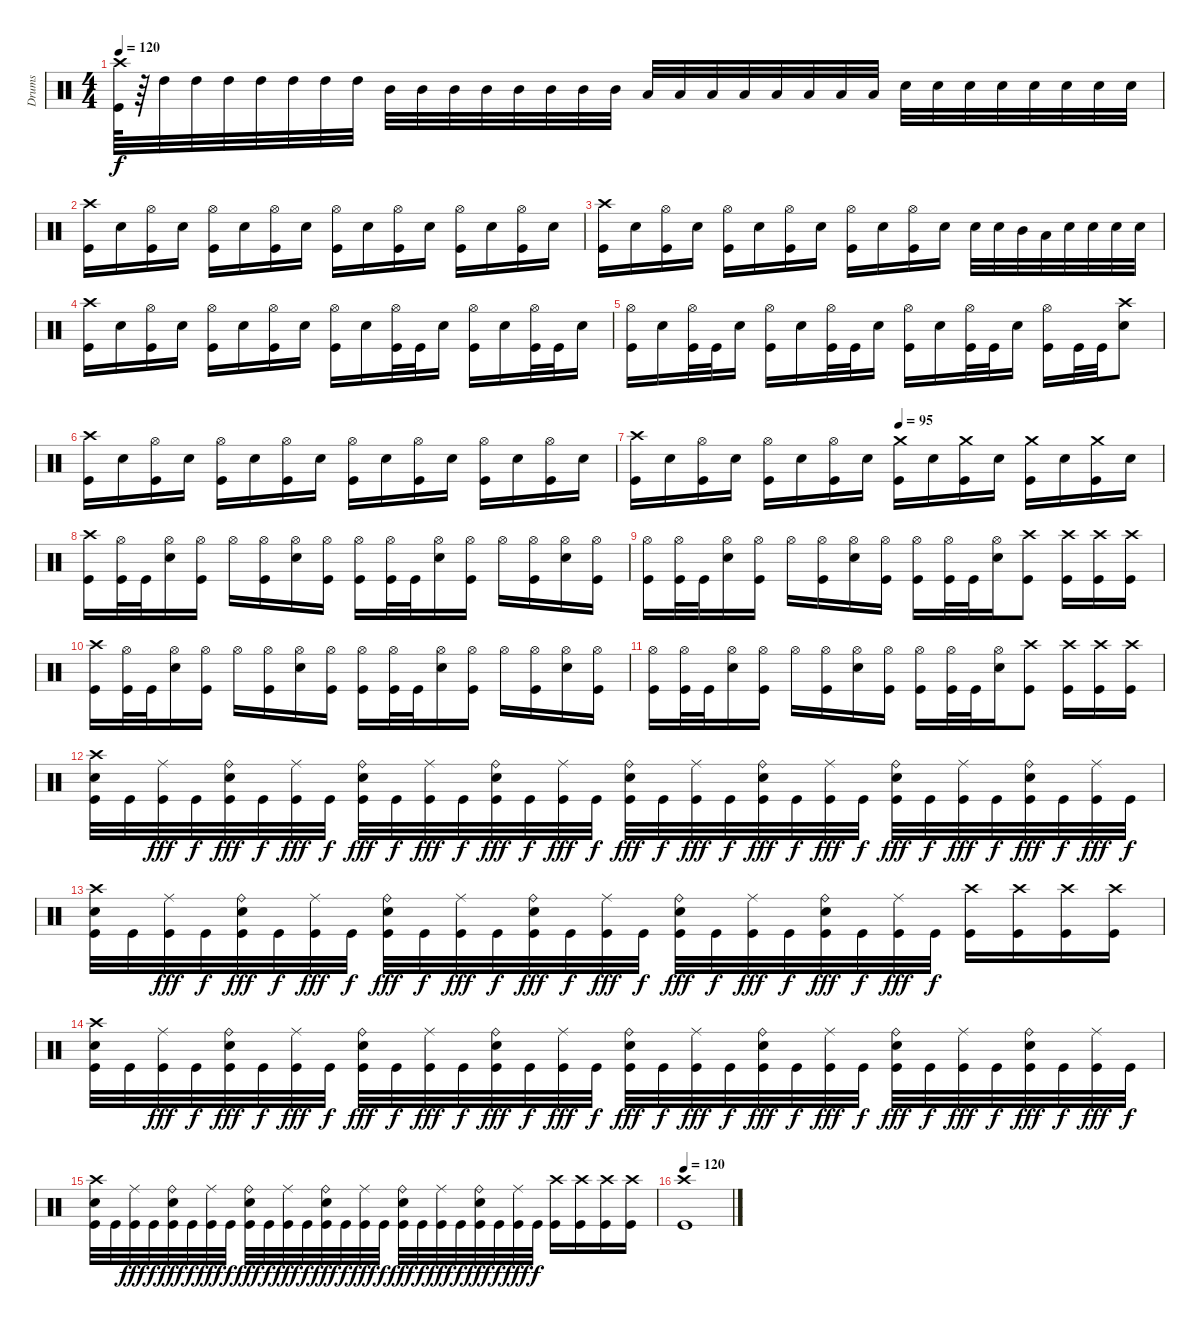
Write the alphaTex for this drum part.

\track ("Drums" "Drums") {instrument percussion}
\staff {score}
\articulation defaults
\ts (4 4)
\tempo 120
\clef neutral
\ks c
("Crash high (hit)" "Kick (hit)").64{dy f} r.64{balance 16} "High Tom (hit)".32{balance 0} "High Tom (hit)".32 "High Tom (hit)".32 "High Tom (hit)".32 "High Tom (hit)".32 "High Tom (hit)".32 "High Tom (hit)".32 "Mid Tom (hit)".32 "Mid Tom (hit)".32 "Mid Tom (hit)".32 "Mid Tom (hit)".32 "Mid Tom (hit)".32 "Mid Tom (hit)".32 "Mid Tom (hit)".32 "Mid Tom (hit)".32 "Low Tom (hit)".32 "Low Tom (hit)".32 "Low Tom (hit)".32 "Low Tom (hit)".32 "Low Tom (hit)".32 "Low Tom (hit)".32 "Low Tom (hit)".32 "Low Tom (hit)".32 "Electric Snare (hit)".32{balance 8} "Electric Snare (hit)".32{balance 8} "Electric Snare (hit)".32 "Electric Snare (hit)".32 "Electric Snare (hit)".32 "Electric Snare (hit)".32 "Electric Snare (hit)".32 "Electric Snare (hit)".32 |
("Crash high (hit)" "Kick (hit)").16 "Electric Snare (hit)".16 ("Hi-Hat (open)" "Kick (hit)").16 "Electric Snare (hit)".16 ("Hi-Hat (open)" "Kick (hit)").16 "Electric Snare (hit)".16 ("Hi-Hat (open)" "Kick (hit)").16 "Electric Snare (hit)".16 ("Hi-Hat (open)" "Kick (hit)").16 "Electric Snare (hit)".16 ("Hi-Hat (open)" "Kick (hit)").16 "Electric Snare (hit)".16 ("Hi-Hat (open)" "Kick (hit)").16 "Electric Snare (hit)".16 ("Hi-Hat (open)" "Kick (hit)").16 "Electric Snare (hit)".16 |
("Crash high (hit)" "Kick (hit)").16 "Electric Snare (hit)".16 ("Hi-Hat (open)" "Kick (hit)").16 "Electric Snare (hit)".16 ("Hi-Hat (open)" "Kick (hit)").16 "Electric Snare (hit)".16 ("Hi-Hat (open)" "Kick (hit)").16 "Electric Snare (hit)".16 ("Hi-Hat (open)" "Kick (hit)").16 "Electric Snare (hit)".16 ("Hi-Hat (open)" "Kick (hit)").16 "Electric Snare (hit)".16 "Electric Snare (hit)".32 "Electric Snare (hit)".32 "Mid Tom (hit)".32 "Low Tom (hit)".32 "Electric Snare (hit)".32 "Electric Snare (hit)".32 "Electric Snare (hit)".32 "Electric Snare (hit)".32 |
("Crash high (hit)" "Kick (hit)").16 "Electric Snare (hit)".16 ("Hi-Hat (open)" "Kick (hit)").16 "Electric Snare (hit)".16 ("Hi-Hat (open)" "Kick (hit)").16 "Electric Snare (hit)".16 ("Hi-Hat (open)" "Kick (hit)").16 "Electric Snare (hit)".16 ("Hi-Hat (open)" "Kick (hit)").16 "Electric Snare (hit)".16 ("Hi-Hat (open)" "Kick (hit)").32 "Kick (hit)".32 "Electric Snare (hit)".16 ("Hi-Hat (open)" "Kick (hit)").16 "Electric Snare (hit)".16 ("Hi-Hat (open)" "Kick (hit)").32 "Kick (hit)".32 "Electric Snare (hit)".16 |
("Hi-Hat (open)" "Kick (hit)").16 "Electric Snare (hit)".16 ("Hi-Hat (open)" "Kick (hit)").32 "Kick (hit)".32 "Electric Snare (hit)".16 ("Hi-Hat (open)" "Kick (hit)").16 "Electric Snare (hit)".16 ("Hi-Hat (open)" "Kick (hit)").32 "Kick (hit)".32 "Electric Snare (hit)".16 ("Hi-Hat (open)" "Kick (hit)").16 "Electric Snare (hit)".16 ("Hi-Hat (open)" "Kick (hit)").32 "Kick (hit)".32 "Electric Snare (hit)".16 ("Hi-Hat (open)" "Kick (hit)").16 "Kick (hit)".32 "Kick (hit)".32 ("Crash high (hit)" "Electric Snare (hit)").8 |
("Crash high (hit)" "Kick (hit)").16 "Electric Snare (hit)".16 ("Hi-Hat (open)" "Kick (hit)").16 "Electric Snare (hit)".16 ("Hi-Hat (open)" "Kick (hit)").16 "Electric Snare (hit)".16 ("Hi-Hat (open)" "Kick (hit)").16 "Electric Snare (hit)".16 ("Hi-Hat (open)" "Kick (hit)").16 "Electric Snare (hit)".16 ("Hi-Hat (open)" "Kick (hit)").16 "Electric Snare (hit)".16 ("Hi-Hat (open)" "Kick (hit)").16 "Electric Snare (hit)".16 ("Hi-Hat (open)" "Kick (hit)").16 "Electric Snare (hit)".16 |
\tempo (95 0.5)
("Crash high (hit)" "Kick (hit)").16 "Electric Snare (hit)".16 ("Hi-Hat (open)" "Kick (hit)").16 "Electric Snare (hit)".16 ("Hi-Hat (open)" "Kick (hit)").16 "Electric Snare (hit)".16 ("Hi-Hat (open)" "Kick (hit)").16 "Electric Snare (hit)".16 ("Crash medium (hit)" "Kick (hit)").16 "Electric Snare (hit)".16 ("Crash medium (hit)" "Kick (hit)").16 "Electric Snare (hit)".16 ("Crash medium (hit)" "Kick (hit)").16 "Electric Snare (hit)".16 ("Crash medium (hit)" "Kick (hit)").16 "Electric Snare (hit)".16 |
("Crash high (hit)" "Kick (hit)").16 ("Hi-Hat (open)" "Kick (hit)").32 "Kick (hit)".32 ("Hi-Hat (open)" "Electric Snare (hit)").16 ("Hi-Hat (open)" "Kick (hit)").16 "Hi-Hat (open)".16 ("Hi-Hat (open)" "Kick (hit)").16 ("Hi-Hat (open)" "Electric Snare (hit)").16 ("Hi-Hat (open)" "Kick (hit)").16 ("Hi-Hat (open)" "Kick (hit)").16 ("Hi-Hat (open)" "Kick (hit)").32 "Kick (hit)".32 ("Hi-Hat (open)" "Electric Snare (hit)").16 ("Hi-Hat (open)" "Kick (hit)").16 "Hi-Hat (open)".16 ("Hi-Hat (open)" "Kick (hit)").16 ("Hi-Hat (open)" "Electric Snare (hit)").16 ("Hi-Hat (open)" "Kick (hit)").16 |
("Hi-Hat (open)" "Kick (hit)").16 ("Hi-Hat (open)" "Kick (hit)").32 "Kick (hit)".32 ("Hi-Hat (open)" "Electric Snare (hit)").16 ("Hi-Hat (open)" "Kick (hit)").16 "Hi-Hat (open)".16 ("Hi-Hat (open)" "Kick (hit)").16 ("Hi-Hat (open)" "Electric Snare (hit)").16 ("Hi-Hat (open)" "Kick (hit)").16 ("Hi-Hat (open)" "Kick (hit)").16 ("Hi-Hat (open)" "Kick (hit)").32 "Kick (hit)".32 ("Hi-Hat (open)" "Electric Snare (hit)").16 ("Crash high (hit)" "Kick (hit)").8 ("Crash high (hit)" "Kick (hit)").16 ("Crash high (hit)" "Kick (hit)").16 ("Crash high (hit)" "Kick (hit)").16 |
("Crash high (hit)" "Kick (hit)").16 ("Hi-Hat (open)" "Kick (hit)").32 "Kick (hit)".32 ("Hi-Hat (open)" "Electric Snare (hit)").16 ("Hi-Hat (open)" "Kick (hit)").16 "Hi-Hat (open)".16 ("Hi-Hat (open)" "Kick (hit)").16 ("Hi-Hat (open)" "Electric Snare (hit)").16 ("Hi-Hat (open)" "Kick (hit)").16 ("Hi-Hat (open)" "Kick (hit)").16 ("Hi-Hat (open)" "Kick (hit)").32 "Kick (hit)".32 ("Hi-Hat (open)" "Electric Snare (hit)").16 ("Hi-Hat (open)" "Kick (hit)").16 "Hi-Hat (open)".16 ("Hi-Hat (open)" "Kick (hit)").16 ("Hi-Hat (open)" "Electric Snare (hit)").16 ("Hi-Hat (open)" "Kick (hit)").16 |
("Hi-Hat (open)" "Kick (hit)").16 ("Hi-Hat (open)" "Kick (hit)").32 "Kick (hit)".32 ("Hi-Hat (open)" "Electric Snare (hit)").16 ("Hi-Hat (open)" "Kick (hit)").16 "Hi-Hat (open)".16 ("Hi-Hat (open)" "Kick (hit)").16 ("Hi-Hat (open)" "Electric Snare (hit)").16 ("Hi-Hat (open)" "Kick (hit)").16 ("Hi-Hat (open)" "Kick (hit)").16 ("Hi-Hat (open)" "Kick (hit)").32 "Kick (hit)".32 ("Hi-Hat (open)" "Electric Snare (hit)").16 ("Crash high (hit)" "Kick (hit)").8 ("Crash high (hit)" "Kick (hit)").16 ("Crash high (hit)" "Kick (hit)").16 ("Crash high (hit)" "Kick (hit)").16 |
("Crash high (hit)" "Electric Snare (hit)" "Kick (hit)").32 "Kick (hit)".32 ("Ride (middle)" "Kick (hit)").32{dy fff} "Kick (hit)".32{dy f} ("Ride (bell)" "Electric Snare (hit)" "Kick (hit)").32{dy fff} "Kick (hit)".32{dy f} ("Ride (middle)" "Kick (hit)").32{dy fff} "Kick (hit)".32{dy f} ("Ride (bell)" "Electric Snare (hit)" "Kick (hit)").32{dy fff} "Kick (hit)".32{dy f} ("Ride (middle)" "Kick (hit)").32{dy fff} "Kick (hit)".32{dy f} ("Ride (bell)" "Electric Snare (hit)" "Kick (hit)").32{dy fff} "Kick (hit)".32{dy f} ("Ride (middle)" "Kick (hit)").32{dy fff} "Kick (hit)".32{dy f} ("Ride (bell)" "Electric Snare (hit)" "Kick (hit)").32{dy fff} "Kick (hit)".32{dy f} ("Ride (middle)" "Kick (hit)").32{dy fff} "Kick (hit)".32{dy f} ("Ride (bell)" "Electric Snare (hit)" "Kick (hit)").32{dy fff} "Kick (hit)".32{dy f} ("Ride (middle)" "Kick (hit)").32{dy fff} "Kick (hit)".32{dy f} ("Ride (bell)" "Electric Snare (hit)" "Kick (hit)").32{dy fff} "Kick (hit)".32{dy f} ("Ride (middle)" "Kick (hit)").32{dy fff} "Kick (hit)".32{dy f} ("Ride (bell)" "Electric Snare (hit)" "Kick (hit)").32{dy fff} "Kick (hit)".32{dy f} ("Ride (middle)" "Kick (hit)").32{dy fff} "Kick (hit)".32{dy f} |
("Crash high (hit)" "Electric Snare (hit)" "Kick (hit)").32 "Kick (hit)".32 ("Ride (middle)" "Kick (hit)").32{dy fff} "Kick (hit)".32{dy f} ("Ride (bell)" "Electric Snare (hit)" "Kick (hit)").32{dy fff} "Kick (hit)".32{dy f} ("Ride (middle)" "Kick (hit)").32{dy fff} "Kick (hit)".32{dy f} ("Ride (bell)" "Electric Snare (hit)" "Kick (hit)").32{dy fff} "Kick (hit)".32{dy f} ("Ride (middle)" "Kick (hit)").32{dy fff} "Kick (hit)".32{dy f} ("Ride (bell)" "Electric Snare (hit)" "Kick (hit)").32{dy fff} "Kick (hit)".32{dy f} ("Ride (middle)" "Kick (hit)").32{dy fff} "Kick (hit)".32{dy f} ("Ride (bell)" "Electric Snare (hit)" "Kick (hit)").32{dy fff} "Kick (hit)".32{dy f} ("Ride (middle)" "Kick (hit)").32{dy fff} "Kick (hit)".32{dy f} ("Ride (bell)" "Electric Snare (hit)" "Kick (hit)").32{dy fff} "Kick (hit)".32{dy f} ("Ride (middle)" "Kick (hit)").32{dy fff} "Kick (hit)".32{dy f} ("Crash high (hit)" "Kick (hit)").16 ("Crash high (hit)" "Kick (hit)").16 ("Crash high (hit)" "Kick (hit)").16 ("Crash high (hit)" "Kick (hit)").16 |
("Crash high (hit)" "Electric Snare (hit)" "Kick (hit)").32 "Kick (hit)".32 ("Ride (middle)" "Kick (hit)").32{dy fff} "Kick (hit)".32{dy f} ("Ride (bell)" "Electric Snare (hit)" "Kick (hit)").32{dy fff} "Kick (hit)".32{dy f} ("Ride (middle)" "Kick (hit)").32{dy fff} "Kick (hit)".32{dy f} ("Ride (bell)" "Electric Snare (hit)" "Kick (hit)").32{dy fff} "Kick (hit)".32{dy f} ("Ride (middle)" "Kick (hit)").32{dy fff} "Kick (hit)".32{dy f} ("Ride (bell)" "Electric Snare (hit)" "Kick (hit)").32{dy fff} "Kick (hit)".32{dy f} ("Ride (middle)" "Kick (hit)").32{dy fff} "Kick (hit)".32{dy f} ("Ride (bell)" "Electric Snare (hit)" "Kick (hit)").32{dy fff} "Kick (hit)".32{dy f} ("Ride (middle)" "Kick (hit)").32{dy fff} "Kick (hit)".32{dy f} ("Ride (bell)" "Electric Snare (hit)" "Kick (hit)").32{dy fff} "Kick (hit)".32{dy f} ("Ride (middle)" "Kick (hit)").32{dy fff} "Kick (hit)".32{dy f} ("Ride (bell)" "Electric Snare (hit)" "Kick (hit)").32{dy fff} "Kick (hit)".32{dy f} ("Ride (middle)" "Kick (hit)").32{dy fff} "Kick (hit)".32{dy f} ("Ride (bell)" "Electric Snare (hit)" "Kick (hit)").32{dy fff} "Kick (hit)".32{dy f} ("Ride (middle)" "Kick (hit)").32{dy fff} "Kick (hit)".32{dy f} |
("Crash high (hit)" "Electric Snare (hit)" "Kick (hit)").32 "Kick (hit)".32 ("Ride (middle)" "Kick (hit)").32{dy fff} "Kick (hit)".32{dy f} ("Ride (bell)" "Electric Snare (hit)" "Kick (hit)").32{dy fff} "Kick (hit)".32{dy f} ("Ride (middle)" "Kick (hit)").32{dy fff} "Kick (hit)".32{dy f} ("Ride (bell)" "Electric Snare (hit)" "Kick (hit)").32{dy fff} "Kick (hit)".32{dy f} ("Ride (middle)" "Kick (hit)").32{dy fff} "Kick (hit)".32{dy f} ("Ride (bell)" "Electric Snare (hit)" "Kick (hit)").32{dy fff} "Kick (hit)".32{dy f} ("Ride (middle)" "Kick (hit)").32{dy fff} "Kick (hit)".32{dy f} ("Ride (bell)" "Electric Snare (hit)" "Kick (hit)").32{dy fff} "Kick (hit)".32{dy f} ("Ride (middle)" "Kick (hit)").32{dy fff} "Kick (hit)".32{dy f} ("Ride (bell)" "Electric Snare (hit)" "Kick (hit)").32{dy fff} "Kick (hit)".32{dy f} ("Ride (middle)" "Kick (hit)").32{dy fff} "Kick (hit)".32{dy f} ("Crash high (hit)" "Kick (hit)").16 ("Crash high (hit)" "Kick (hit)").16 ("Crash high (hit)" "Kick (hit)").16 ("Crash high (hit)" "Kick (hit)").16 |
\tempo 120
("Crash high (hit)" "Kick (hit)").1
